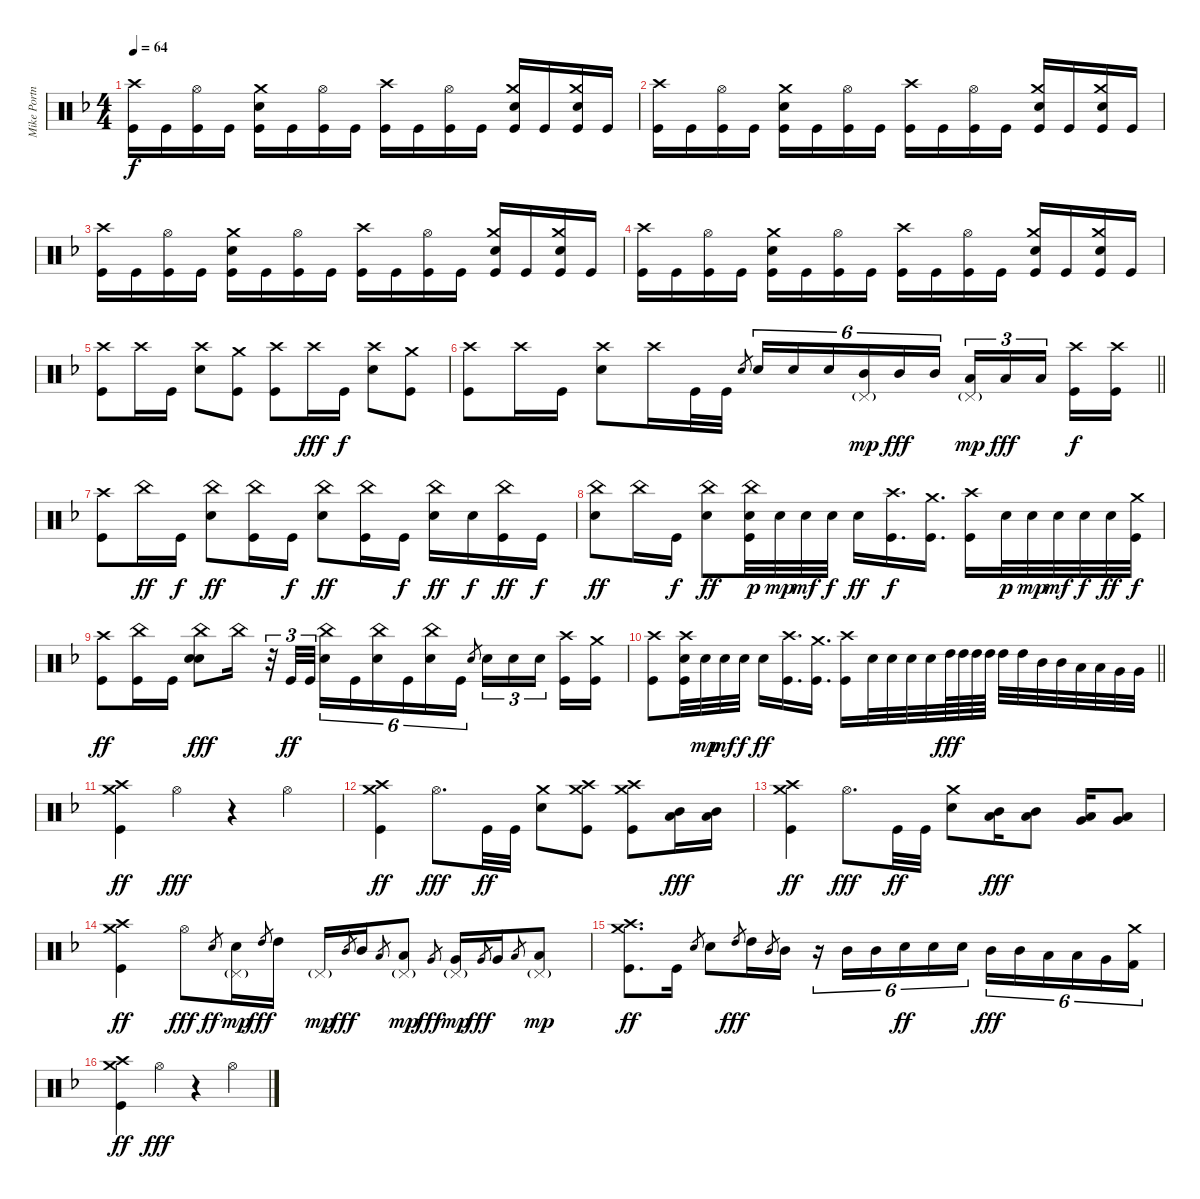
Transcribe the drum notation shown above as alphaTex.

\track ("Mike Portnoy - Drums" "Mike Portn") {instrument percussion}
\staff {score}
\articulation defaults
\ts (4 4)
\tempo 64
\clef neutral
\ks dminor
("Crash high (hit)" "Kick (hit)").16{dy f} "Kick (hit)".16 ("Hi-Hat (open)" "Kick (hit)").16 "Kick (hit)".16 ("Crash medium (hit)" "Snare (hit) 2" "Kick (hit)").16 "Kick (hit)".16 ("Hi-Hat (open)" "Kick (hit)").16 "Kick (hit)".16 ("Crash high (hit)" "Kick (hit)").16 "Kick (hit)".16 ("Hi-Hat (open)" "Kick (hit)").16 "Kick (hit)".16 ("Crash medium (hit)" "Snare (hit) 2" "Kick (hit)").16 "Kick (hit)".16 ("Crash medium (hit)" "Snare (hit) 2" "Kick (hit)").16 "Kick (hit)".16 |
("Crash high (hit)" "Kick (hit)").16 "Kick (hit)".16 ("Hi-Hat (open)" "Kick (hit)").16 "Kick (hit)".16 ("Crash medium (hit)" "Snare (hit) 2" "Kick (hit)").16 "Kick (hit)".16 ("Hi-Hat (open)" "Kick (hit)").16 "Kick (hit)".16 ("Crash high (hit)" "Kick (hit)").16 "Kick (hit)".16 ("Hi-Hat (open)" "Kick (hit)").16 "Kick (hit)".16 ("Crash medium (hit)" "Snare (hit) 2" "Kick (hit)").16 "Kick (hit)".16 ("Crash medium (hit)" "Snare (hit) 2" "Kick (hit)").16 "Kick (hit)".16 |
("Crash high (hit)" "Kick (hit)").16 "Kick (hit)".16 ("Hi-Hat (open)" "Kick (hit)").16 "Kick (hit)".16 ("Crash medium (hit)" "Snare (hit) 2" "Kick (hit)").16 "Kick (hit)".16 ("Hi-Hat (open)" "Kick (hit)").16 "Kick (hit)".16 ("Crash high (hit)" "Kick (hit)").16 "Kick (hit)".16 ("Hi-Hat (open)" "Kick (hit)").16 "Kick (hit)".16 ("Crash medium (hit)" "Snare (hit) 2" "Kick (hit)").16 "Kick (hit)".16 ("Crash medium (hit)" "Snare (hit) 2" "Kick (hit)").16 "Kick (hit)".16 |
("Crash high (hit)" "Kick (hit)").16 "Kick (hit)".16 ("Hi-Hat (open)" "Kick (hit)").16 "Kick (hit)".16 ("Crash medium (hit)" "Snare (hit) 2" "Kick (hit)").16 "Kick (hit)".16 ("Hi-Hat (open)" "Kick (hit)").16 "Kick (hit)".16 ("Crash high (hit)" "Kick (hit)").16 "Kick (hit)".16 ("Hi-Hat (open)" "Kick (hit)").16 "Kick (hit)".16 ("Crash medium (hit)" "Snare (hit) 2" "Kick (hit)").16 "Kick (hit)".16 ("Crash medium (hit)" "Snare (hit) 2" "Kick (hit)").16 "Kick (hit)".16 |
("Crash high (hit)" "Kick (hit)").8 "Crash high (hit)".16 "Kick (hit)".16 ("Crash high (hit)" "Snare (hit) 2").8 ("Crash medium (hit)" "Kick (hit)").8 ("Crash high (hit)" "Kick (hit)").8 "Crash high (hit)".16{dy fff} "Kick (hit)".16{dy f} ("Crash high (hit)" "Snare (hit) 2").8 ("Crash medium (hit)" "Kick (hit)").8 |
\barLineRight lightlight
("Crash high (hit)" "Kick (hit)").8 "Crash high (hit)".16 "Kick (hit)".16 ("Crash high (hit)" "Snare (hit) 2").8 "Crash high (hit)".16 "Kick (hit)".32 "Kick (hit)".32 "Snare (hit) 2".8{gr} "Snare (hit) 2".16{tu (6 4)} "Snare (hit) 2".16{tu (6 4)} "Snare (hit) 2".16{tu (6 4)} ("Mid Tom (hit)" "Pedal Hi-Hat (hit)"{g}).16{tu (6 4) dy mp} "Mid Tom (hit)".16{tu (6 4) dy fff} "Mid Tom (hit)".16{tu (6 4)} ("Low Tom (hit)" "Pedal Hi-Hat (hit)"{g}).16{tu (3 2) dy mp} "Low Tom (hit)".16{tu (3 2) dy fff} "Low Tom (hit)".16{tu (3 2) beam splitsecondary} ("Crash high (hit)" "Kick (hit)").16{dy f} ("Crash high (hit)" "Kick (hit)").16 |
("Crash high (hit)" "Kick (hit)").8 "China (hit)".16{dy ff} "Kick (hit)".16{dy f} ("China (hit)" "Snare (hit) 2").8{dy ff} ("China (hit)" "Kick (hit)").16 "Kick (hit)".16{dy f} ("China (hit)" "Snare (hit) 2").8{dy ff} ("China (hit)" "Kick (hit)").16 "Kick (hit)".16{dy f} ("China (hit)" "Snare (hit) 2").16{dy ff} "Snare (hit) 2".16{dy f} ("China (hit)" "Kick (hit)").16{dy ff} "Kick (hit)".16{dy f} |
("China (hit)" "Snare (hit) 2").8{dy ff} "China (hit)".16 "Kick (hit)".16{dy f} ("China (hit)" "Snare (hit) 2").8{dy ff} ("China (hit)" "Snare (hit) 2" "Kick (hit)").32{dy p} "Snare (hit) 2".32{dy mp} "Snare (hit) 2".32{dy mf} "Snare (hit) 2".32{dy f} "Snare (hit) 2".16{dy ff} ("Crash high (hit)" "Kick (hit)").16{d dy f} ("Crash medium (hit)" "Kick (hit)").16{d} ("Crash high (hit)" "Kick (hit)").16 "Snare (hit) 2".32{dy p} "Snare (hit) 2".32{dy mp} "Snare (hit) 2".32{dy mf} "Snare (hit) 2".32{dy f} "Snare (hit) 2".32{dy ff} ("Crash medium (hit)" "Kick (hit)").32{dy f} |
("Crash high (hit)" "Kick (hit)").8{dy ff} ("China (hit)" "Kick (hit)").16 "Kick (hit)".16 ("China (hit)" "Snare (hit) 2" "Electric Snare (hit)").8{dy fff} "China (hit)".16 r.32{tu (3 2)} "Kick (hit)".32{tu (3 2) dy ff} "Kick (hit)".32{tu (3 2)} ("China (hit)" "Snare (hit) 2").16{tu (6 4)} "Kick (hit)".16{tu (6 4)} ("China (hit)" "Snare (hit) 2").16{tu (6 4)} "Kick (hit)".16{tu (6 4)} ("China (hit)" "Snare (hit) 2").16{tu (6 4)} "Kick (hit)".16{tu (6 4)} "Snare (hit) 2".8{gr} "Snare (hit) 2".16{tu (3 2)} "Snare (hit) 2".16{tu (3 2)} "Snare (hit) 2".16{tu (3 2) beam splitsecondary} ("Crash high (hit)" "Kick (hit)").16 ("Crash medium (hit)" "Kick (hit)").16 |
\barLineRight lightlight
("Crash high (hit)" "Kick (hit)").8 ("Crash high (hit)" "Snare (hit) 2" "Kick (hit)").32 "Snare (hit) 2".32{dy mp} "Snare (hit) 2".32{dy mf} "Snare (hit) 2".32{dy f} "Snare (hit) 2".16{dy ff} ("Crash high (hit)" "Kick (hit)").16{d} ("Crash medium (hit)" "Kick (hit)").16{d} ("Crash high (hit)" "Kick (hit)").16 "Snare (hit) 2".32 "Snare (hit) 2".32 "Snare (hit) 2".32 "Snare (hit) 2".32 "High Tom (hit)".64{dy fff} "High Tom (hit)".64 "High Tom (hit)".64 "High Tom (hit)".64 "High Tom (hit)".32 "High Tom (hit)".32 "Mid Tom (hit)".32 "Mid Tom (hit)".32 "Low Tom (hit)".32 "Low Tom (hit)".32 "Very Low Tom (hit)".32 "Very Low Tom (hit)".32 |
("Crash high (hit)" "Crash medium (hit)" "Kick (hit)").4{dy ff} "Hi-Hat (open)".4{dy fff} r.4 "Hi-Hat (open)".4 |
("Crash high (hit)" "Crash medium (hit)" "Kick (hit)").4{dy ff} "Hi-Hat (open)".8{d dy fff} "Kick (hit)".32{dy ff} "Kick (hit)".32 ("Crash medium (hit)" "Snare (hit) 2").8 ("Crash high (hit)" "Crash medium (hit)" "Kick (hit)").8 ("Crash high (hit)" "Crash medium (hit)" "Kick (hit)").8 ("Mid Tom (hit)" "Low Tom (hit)").16{dy fff} ("Mid Tom (hit)" "Low Tom (hit)").16 |
("Crash high (hit)" "Crash medium (hit)" "Kick (hit)").4{dy ff} "Hi-Hat (open)".8{d dy fff} "Kick (hit)".32{dy ff} "Kick (hit)".32 ("Crash medium (hit)" "Snare (hit) 2").8 ("Mid Tom (hit)" "Low Tom (hit)").16{dy fff} ("Mid Tom (hit)" "Low Tom (hit)").8 ("Low Tom (hit)" "Very Low Tom (hit)").16 ("Low Tom (hit)" "Very Low Tom (hit)").8 |
("Crash high (hit)" "Crash medium (hit)" "Kick (hit)").4{dy ff} "Hi-Hat (open)".8{dy fff} "Snare (hit) 2".8{gr dy ff} ("Snare (hit) 2" "Pedal Hi-Hat (hit)"{g}).16{dy mp} "High Tom (hit)".8{gr dy fff} "High Tom (hit)".16 "Pedal Hi-Hat (hit)"{g}.16{dy mp} "Mid Tom (hit)".8{gr dy fff} "Mid Tom (hit)".16 "Low Tom (hit)".8{gr} ("Low Tom (hit)" "Pedal Hi-Hat (hit)"{g}).8{dy mp} "Very Low Tom (hit)".8{gr dy fff} ("Very Low Tom (hit)" "Pedal Hi-Hat (hit)"{g}).16{dy mp} "Very Low Tom (hit)".8{gr dy fff} "Very Low Tom (hit)".16 "Low Floor Tom (hit)".8{gr} ("Low Floor Tom (hit)" "Pedal Hi-Hat (hit)"{g}).8{dy mp} |
("Crash high (hit)" "Crash medium (hit)" "Kick (hit)").8{d dy ff} "Kick (hit)".16 "Snare (hit) 2".8{gr} "Snare (hit) 2".8 "High Tom (hit)".8{gr dy fff} "High Tom (hit)".16 "Mid Tom (hit)".8{gr} "Mid Tom (hit)".16 r.16{tu (6 4)} "Mid Tom (hit)".16{tu (6 4)} "Mid Tom (hit)".16{tu (6 4)} "Snare (hit) 2".16{tu (6 4) dy ff} "Snare (hit) 2".16{tu (6 4)} "Snare (hit) 2".16{tu (6 4)} "Mid Tom (hit)".16{tu (6 4) dy fff} "Mid Tom (hit)".16{tu (6 4)} "Low Tom (hit)".16{tu (6 4)} "Low Tom (hit)".16{tu (6 4)} "Very Low Tom (hit)".16{tu (6 4)} ("Crash medium (hit)" "Kick (hit) 2").16{tu (6 4)} |
("Crash high (hit)" "Crash medium (hit)" "Kick (hit)").4{dy ff} "Hi-Hat (open)".4{dy fff} r.4 "Hi-Hat (open)".4
